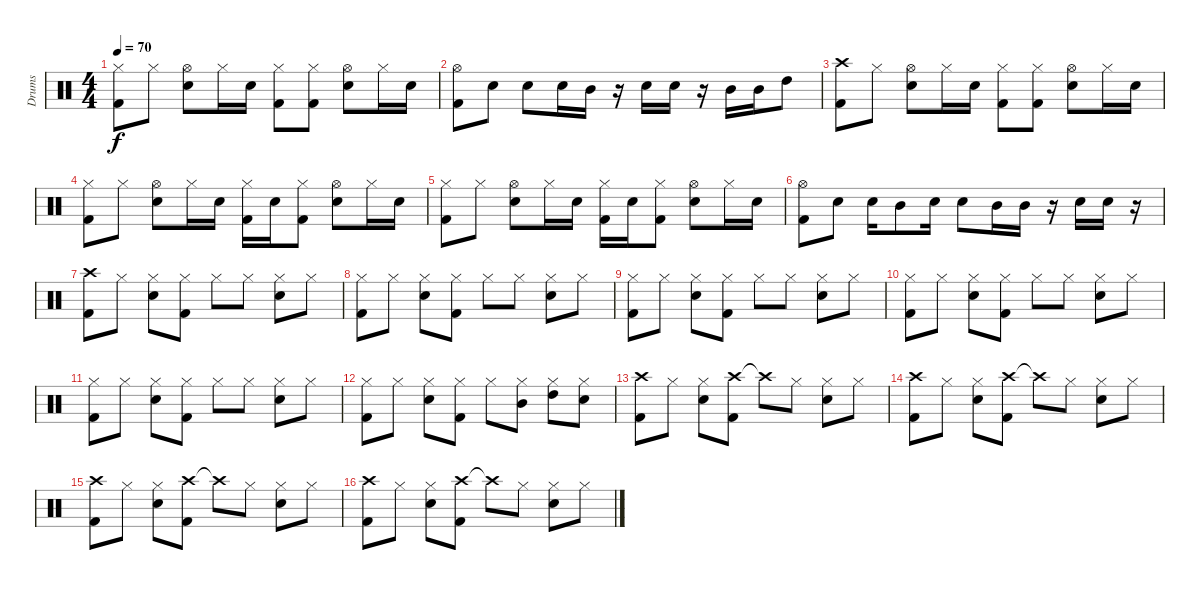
\track ("Drums" "Drums") {instrument percussion}
\staff {score}
\articulation defaults
\ts (4 4)
\tempo 70
\clef neutral
\ks c
("Hi-Hat (closed)" "Kick (hit) 2").8{dy f} "Hi-Hat (closed)".8 ("Hi-Hat (open)" "Snare (hit) 2").8 "Hi-Hat (closed)".16 "Snare (hit) 2".16 ("Hi-Hat (closed)" "Kick (hit) 2").8 ("Hi-Hat (closed)" "Kick (hit) 2").8 ("Hi-Hat (open)" "Snare (hit) 2").8 "Hi-Hat (closed)".16 "Snare (hit) 2".16 |
("Hi-Hat (open)" "Kick (hit) 2").8 "Snare (hit) 2".8 "Snare (hit) 2".8 "Snare (hit) 2".16 "Mid Tom (hit)".16 r.16 "Snare (hit) 2".16 "Snare (hit) 2".16 r.16 "Mid Tom (hit)".16 "Mid Tom (hit)".16 "High Tom (hit)".8 |
("Crash high (hit)" "Kick (hit) 2").8 "Hi-Hat (closed)".8 ("Hi-Hat (open)" "Snare (hit) 2").8 "Hi-Hat (closed)".16 "Snare (hit) 2".16 ("Hi-Hat (closed)" "Kick (hit) 2").8 ("Hi-Hat (closed)" "Kick (hit) 2").8 ("Hi-Hat (open)" "Snare (hit) 2").8 "Hi-Hat (closed)".16 "Snare (hit) 2".16 |
("Hi-Hat (closed)" "Kick (hit) 2").8 "Hi-Hat (closed)".8 ("Hi-Hat (open)" "Snare (hit) 2").8 "Hi-Hat (closed)".16 "Snare (hit) 2".16 ("Hi-Hat (closed)" "Kick (hit) 2").16 "Snare (hit) 2".16 ("Hi-Hat (closed)" "Kick (hit) 2").8 ("Hi-Hat (open)" "Snare (hit) 2").8 "Hi-Hat (closed)".16 "Snare (hit) 2".16 |
("Hi-Hat (closed)" "Kick (hit) 2").8 "Hi-Hat (closed)".8 ("Hi-Hat (open)" "Snare (hit) 2").8 "Hi-Hat (closed)".16 "Snare (hit) 2".16 ("Hi-Hat (closed)" "Kick (hit) 2").16 "Snare (hit) 2".16 ("Hi-Hat (closed)" "Kick (hit) 2").8 ("Hi-Hat (open)" "Snare (hit) 2").8 "Hi-Hat (closed)".16 "Snare (hit) 2".16 |
("Hi-Hat (open)" "Kick (hit) 2").8 "Snare (hit) 2".8 "Snare (hit) 2".16 "Mid Tom (hit)".8 "Snare (hit) 2".16 "Snare (hit) 2".8 "Mid Tom (hit)".16 "Mid Tom (hit)".16 r.16 "Snare (hit) 2".16 "Snare (hit) 2".16 r.16 |
("Crash high (hit)" "Kick (hit) 2").8 "Hi-Hat (closed)".8 ("Hi-Hat (closed)" "Snare (hit) 2").8 ("Hi-Hat (closed)" "Kick (hit) 2").8 "Hi-Hat (closed)".8 "Hi-Hat (closed)".8 ("Hi-Hat (closed)" "Snare (hit) 2").8 "Hi-Hat (closed)".8 |
("Hi-Hat (closed)" "Kick (hit) 2").8 "Hi-Hat (closed)".8 ("Hi-Hat (closed)" "Snare (hit) 2").8 ("Hi-Hat (closed)" "Kick (hit) 2").8 "Hi-Hat (closed)".8 "Hi-Hat (closed)".8 ("Hi-Hat (closed)" "Snare (hit) 2").8 "Hi-Hat (closed)".8 |
("Hi-Hat (closed)" "Kick (hit) 2").8 "Hi-Hat (closed)".8 ("Hi-Hat (closed)" "Snare (hit) 2").8 ("Hi-Hat (closed)" "Kick (hit) 2").8 "Hi-Hat (closed)".8 "Hi-Hat (closed)".8 ("Hi-Hat (closed)" "Snare (hit) 2").8 "Hi-Hat (closed)".8 |
("Hi-Hat (closed)" "Kick (hit) 2").8 "Hi-Hat (closed)".8 ("Hi-Hat (closed)" "Snare (hit) 2").8 ("Hi-Hat (closed)" "Kick (hit) 2").8 "Hi-Hat (closed)".8 "Hi-Hat (closed)".8 ("Hi-Hat (closed)" "Snare (hit) 2").8 "Hi-Hat (closed)".8 |
("Hi-Hat (closed)" "Kick (hit) 2").8 "Hi-Hat (closed)".8 ("Hi-Hat (closed)" "Snare (hit) 2").8 ("Hi-Hat (closed)" "Kick (hit) 2").8 "Hi-Hat (closed)".8 "Hi-Hat (closed)".8 ("Hi-Hat (closed)" "Snare (hit) 2").8 "Hi-Hat (closed)".8 |
("Hi-Hat (closed)" "Kick (hit) 2").8 "Hi-Hat (closed)".8 ("Hi-Hat (closed)" "Snare (hit) 2").8 ("Hi-Hat (closed)" "Kick (hit) 2").8 "Hi-Hat (closed)".8 ("Hi-Hat (closed)" "Mid Tom (hit)").8 ("Hi-Hat (closed)" "High Tom (hit)").8 ("Hi-Hat (closed)" "Snare (hit) 2").8 |
("Crash high (hit)" "Kick (hit) 2").8 "Hi-Hat (closed)".8 ("Hi-Hat (closed)" "Snare (hit) 2").8 ("Crash high (hit)" "Kick (hit) 2").8 "Crash high (hit)"{t}.8 "Hi-Hat (closed)".8 ("Hi-Hat (closed)" "Snare (hit) 2").8 "Hi-Hat (closed)".8 |
("Crash high (hit)" "Kick (hit) 2").8 "Hi-Hat (closed)".8 ("Hi-Hat (closed)" "Snare (hit) 2").8 ("Crash high (hit)" "Kick (hit) 2").8 "Crash high (hit)"{t}.8 "Hi-Hat (closed)".8 ("Hi-Hat (closed)" "Snare (hit) 2").8 "Hi-Hat (closed)".8 |
("Crash high (hit)" "Kick (hit) 2").8 "Hi-Hat (closed)".8 ("Hi-Hat (closed)" "Snare (hit) 2").8 ("Crash high (hit)" "Kick (hit) 2").8 "Crash high (hit)"{t}.8 "Hi-Hat (closed)".8 ("Hi-Hat (closed)" "Snare (hit) 2").8 "Hi-Hat (closed)".8 |
("Crash high (hit)" "Kick (hit) 2").8 "Hi-Hat (closed)".8 ("Hi-Hat (closed)" "Snare (hit) 2").8 ("Crash high (hit)" "Kick (hit) 2").8 "Crash high (hit)"{t}.8 "Hi-Hat (closed)".8 ("Hi-Hat (closed)" "Snare (hit) 2").8 "Hi-Hat (closed)".8
